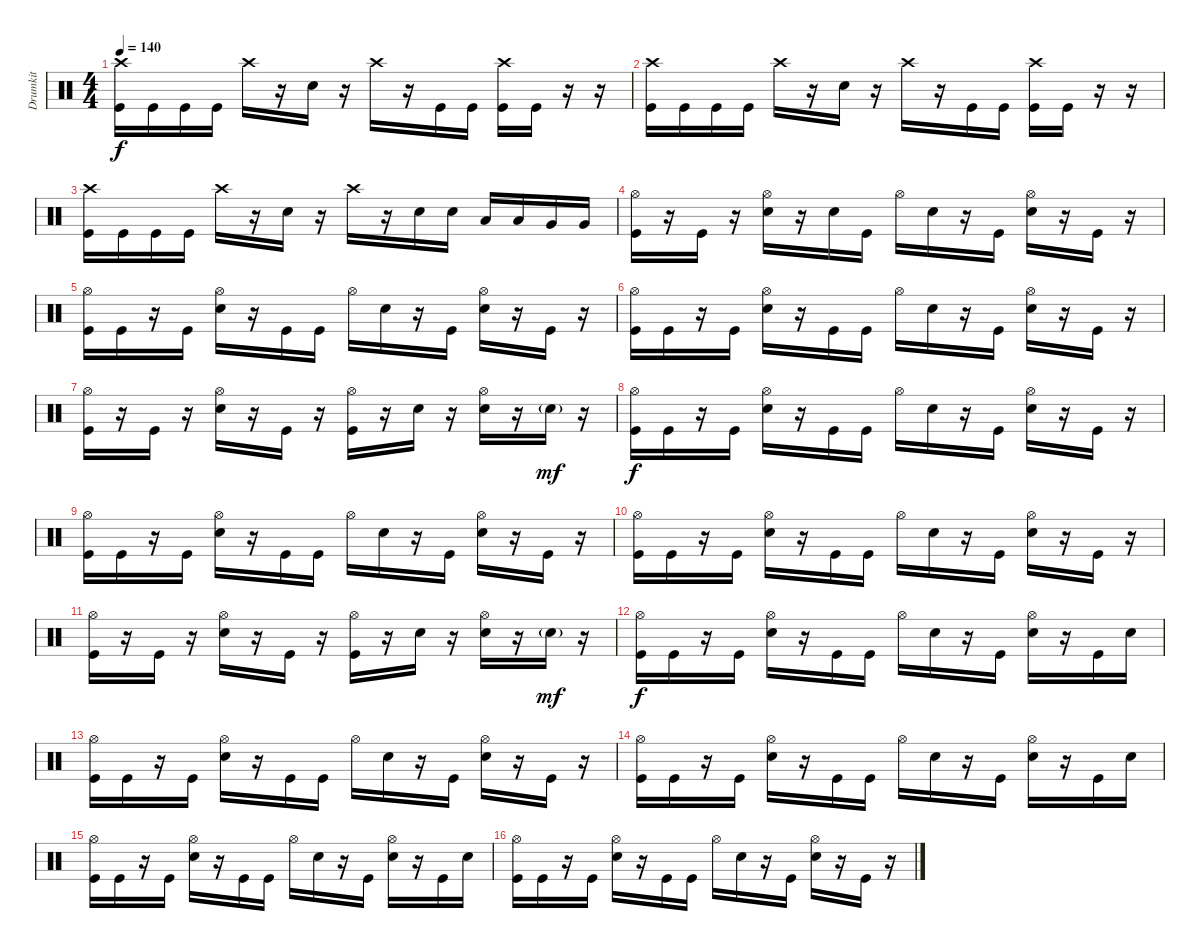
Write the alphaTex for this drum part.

\track ("Drumkit" "Drumkit") {instrument percussion}
\staff {score}
\articulation defaults
\ts (4 4)
\tempo 140
\clef neutral
\ks c
("Crash high (hit)" "Kick (hit)").16{dy f} "Kick (hit)".16 "Kick (hit)".16 "Kick (hit)".16 "Crash high (hit)".16 r.16 "Snare (hit) 2".16 r.16 "Crash high (hit)".16 r.16 "Kick (hit)".16 "Kick (hit)".16 ("Crash high (hit)" "Kick (hit)").16 "Kick (hit)".16 r.16 r.16 |
("Crash high (hit)" "Kick (hit)").16 "Kick (hit)".16 "Kick (hit)".16 "Kick (hit)".16 "Crash high (hit)".16 r.16 "Snare (hit) 2".16 r.16 "Crash high (hit)".16 r.16 "Kick (hit)".16 "Kick (hit)".16 ("Crash high (hit)" "Kick (hit)").16 "Kick (hit)".16 r.16 r.16 |
("Crash high (hit)" "Kick (hit)").16 "Kick (hit)".16 "Kick (hit)".16 "Kick (hit)".16 "Crash high (hit)".16 r.16 "Snare (hit) 2".16 r.16 "Crash high (hit)".16 r.16 "Snare (hit) 2".16 "Snare (hit) 2".16 "Low Tom (hit)".16 "Low Tom (hit)".16 "Very Low Tom (hit)".16 "Very Low Tom (hit)".16 |
("Hi-Hat (open)" "Kick (hit)").16 r.16 "Kick (hit)".16 r.16 ("Hi-Hat (open)" "Snare (hit) 2").16 r.16 "Snare (hit) 2".16 "Kick (hit)".16 "Hi-Hat (open)".16 "Snare (hit) 2".16 r.16 "Kick (hit)".16 ("Hi-Hat (open)" "Snare (hit) 2").16 r.16 "Kick (hit)".16 r.16 |
("Hi-Hat (open)" "Kick (hit)").16 "Kick (hit)".16 r.16 "Kick (hit)".16 ("Hi-Hat (open)" "Snare (hit) 2").16 r.16 "Kick (hit)".16 "Kick (hit)".16 "Hi-Hat (open)".16 "Snare (hit) 2".16 r.16 "Kick (hit)".16 ("Hi-Hat (open)" "Snare (hit) 2").16 r.16 "Kick (hit)".16 r.16 |
("Hi-Hat (open)" "Kick (hit)").16 "Kick (hit)".16 r.16 "Kick (hit)".16 ("Hi-Hat (open)" "Snare (hit) 2").16 r.16 "Kick (hit)".16 "Kick (hit)".16 "Hi-Hat (open)".16 "Snare (hit) 2".16 r.16 "Kick (hit)".16 ("Hi-Hat (open)" "Snare (hit) 2").16 r.16 "Kick (hit)".16 r.16 |
("Hi-Hat (open)" "Kick (hit)").16 r.16 "Kick (hit)".16 r.16 ("Hi-Hat (open)" "Snare (hit) 2").16 r.16 "Kick (hit)".16 r.16 ("Hi-Hat (open)" "Kick (hit)").16 r.16 "Snare (hit) 2".16 r.16 ("Hi-Hat (open)" "Snare (hit) 2").16 r.16 "Snare (hit) 2"{g}.16{dy mf} r.16 |
("Hi-Hat (open)" "Kick (hit)").16{dy f} "Kick (hit)".16 r.16 "Kick (hit)".16 ("Hi-Hat (open)" "Snare (hit) 2").16 r.16 "Kick (hit)".16 "Kick (hit)".16 "Hi-Hat (open)".16 "Snare (hit) 2".16 r.16 "Kick (hit)".16 ("Hi-Hat (open)" "Snare (hit) 2").16 r.16 "Kick (hit)".16 r.16 |
("Hi-Hat (open)" "Kick (hit)").16 "Kick (hit)".16 r.16 "Kick (hit)".16 ("Hi-Hat (open)" "Snare (hit) 2").16 r.16 "Kick (hit)".16 "Kick (hit)".16 "Hi-Hat (open)".16 "Snare (hit) 2".16 r.16 "Kick (hit)".16 ("Hi-Hat (open)" "Snare (hit) 2").16 r.16 "Kick (hit)".16 r.16 |
("Hi-Hat (open)" "Kick (hit)").16 "Kick (hit)".16 r.16 "Kick (hit)".16 ("Hi-Hat (open)" "Snare (hit) 2").16 r.16 "Kick (hit)".16 "Kick (hit)".16 "Hi-Hat (open)".16 "Snare (hit) 2".16 r.16 "Kick (hit)".16 ("Hi-Hat (open)" "Snare (hit) 2").16 r.16 "Kick (hit)".16 r.16 |
("Hi-Hat (open)" "Kick (hit)").16 r.16 "Kick (hit)".16 r.16 ("Hi-Hat (open)" "Snare (hit) 2").16 r.16 "Kick (hit)".16 r.16 ("Hi-Hat (open)" "Kick (hit)").16 r.16 "Snare (hit) 2".16 r.16 ("Hi-Hat (open)" "Snare (hit) 2").16 r.16 "Snare (hit) 2"{g}.16{dy mf} r.16 |
("Hi-Hat (open)" "Kick (hit)").16{dy f} "Kick (hit)".16 r.16 "Kick (hit)".16 ("Hi-Hat (open)" "Snare (hit) 2").16 r.16 "Kick (hit)".16 "Kick (hit)".16 "Hi-Hat (open)".16 "Snare (hit) 2".16 r.16 "Kick (hit)".16 ("Hi-Hat (open)" "Snare (hit) 2").16 r.16 "Kick (hit)".16 "Snare (hit) 2".16 |
("Hi-Hat (open)" "Kick (hit)").16 "Kick (hit)".16 r.16 "Kick (hit)".16 ("Hi-Hat (open)" "Snare (hit) 2").16 r.16 "Kick (hit)".16 "Kick (hit)".16 "Hi-Hat (open)".16 "Snare (hit) 2".16 r.16 "Kick (hit)".16 ("Hi-Hat (open)" "Snare (hit) 2").16 r.16 "Kick (hit)".16 r.16 |
("Hi-Hat (open)" "Kick (hit)").16 "Kick (hit)".16 r.16 "Kick (hit)".16 ("Hi-Hat (open)" "Snare (hit) 2").16 r.16 "Kick (hit)".16 "Kick (hit)".16 "Hi-Hat (open)".16 "Snare (hit) 2".16 r.16 "Kick (hit)".16 ("Hi-Hat (open)" "Snare (hit) 2").16 r.16 "Kick (hit)".16 "Snare (hit) 2".16 |
("Hi-Hat (open)" "Kick (hit)").16 "Kick (hit)".16 r.16 "Kick (hit)".16 ("Hi-Hat (open)" "Snare (hit) 2").16 r.16 "Kick (hit)".16 "Kick (hit)".16 "Hi-Hat (open)".16 "Snare (hit) 2".16 r.16 "Kick (hit)".16 ("Hi-Hat (open)" "Snare (hit) 2").16 r.16 "Kick (hit)".16 "Snare (hit) 2".16 |
("Hi-Hat (open)" "Kick (hit)").16 "Kick (hit)".16 r.16 "Kick (hit)".16 ("Hi-Hat (open)" "Snare (hit) 2").16 r.16 "Kick (hit)".16 "Kick (hit)".16 "Hi-Hat (open)".16 "Snare (hit) 2".16 r.16 "Kick (hit)".16 ("Hi-Hat (open)" "Snare (hit) 2").16 r.16 "Kick (hit)".16 r.16
